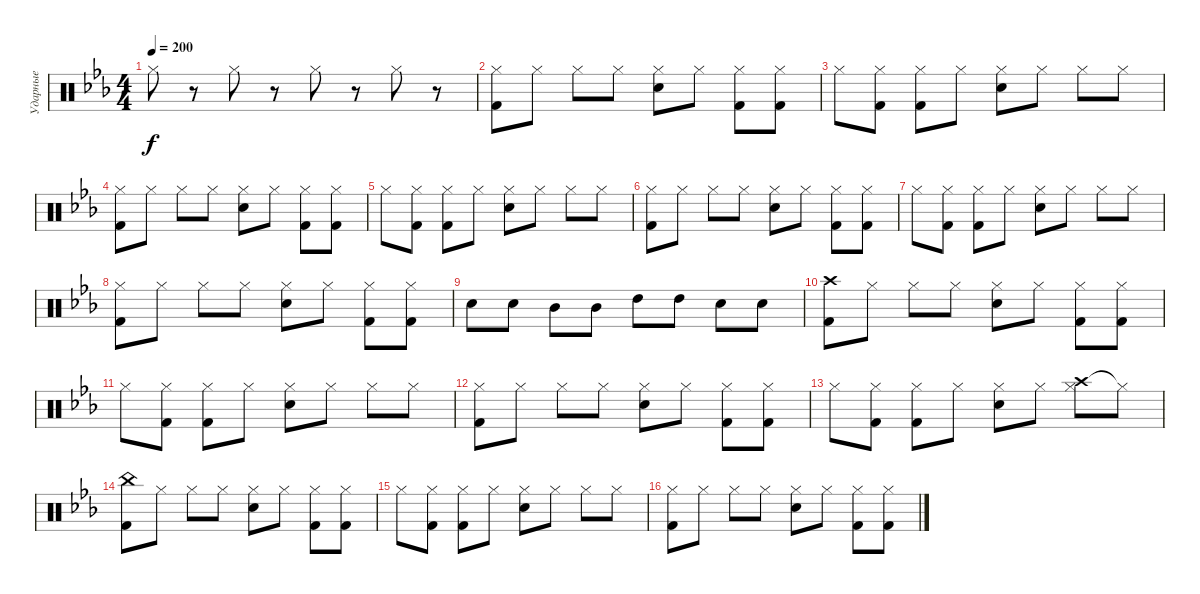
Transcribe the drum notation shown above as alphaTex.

\track ("Ударные" "Ударные") {instrument percussion}
\staff {score}
\articulation defaults
\ts (4 4)
\tempo 200
\clef neutral
\ks cminor "Hi-Hat (closed)".8{dy f}
r.8 "Hi-Hat (closed)".8 r.8 "Hi-Hat (closed)".8 r.8 "Hi-Hat (closed)".8 r.8 |
("Hi-Hat (closed)" "Kick (hit) 2").8 "Hi-Hat (closed)".8 "Hi-Hat (closed)".8 "Hi-Hat (closed)".8 ("Hi-Hat (closed)" "Electric Snare (hit)").8 "Hi-Hat (closed)".8 ("Hi-Hat (closed)" "Kick (hit) 2").8 ("Hi-Hat (closed)" "Kick (hit) 2").8 |
"Hi-Hat (closed)".8 ("Hi-Hat (closed)" "Kick (hit) 2").8 ("Hi-Hat (closed)" "Kick (hit) 2").8 "Hi-Hat (closed)".8 ("Hi-Hat (closed)" "Electric Snare (hit)").8 "Hi-Hat (closed)".8 "Hi-Hat (closed)".8 "Hi-Hat (closed)".8 |
("Hi-Hat (closed)" "Kick (hit) 2").8 "Hi-Hat (closed)".8 "Hi-Hat (closed)".8 "Hi-Hat (closed)".8 ("Hi-Hat (closed)" "Electric Snare (hit)").8 "Hi-Hat (closed)".8 ("Hi-Hat (closed)" "Kick (hit) 2").8 ("Hi-Hat (closed)" "Kick (hit) 2").8 |
"Hi-Hat (closed)".8 ("Hi-Hat (closed)" "Kick (hit) 2").8 ("Hi-Hat (closed)" "Kick (hit) 2").8 "Hi-Hat (closed)".8 ("Hi-Hat (closed)" "Electric Snare (hit)").8 "Hi-Hat (closed)".8 "Hi-Hat (closed)".8 "Hi-Hat (closed)".8 |
("Hi-Hat (closed)" "Kick (hit) 2").8 "Hi-Hat (closed)".8 "Hi-Hat (closed)".8 "Hi-Hat (closed)".8 ("Hi-Hat (closed)" "Electric Snare (hit)").8 "Hi-Hat (closed)".8 ("Hi-Hat (closed)" "Kick (hit) 2").8 ("Hi-Hat (closed)" "Kick (hit) 2").8 |
"Hi-Hat (closed)".8 ("Hi-Hat (closed)" "Kick (hit) 2").8 ("Hi-Hat (closed)" "Kick (hit) 2").8 "Hi-Hat (closed)".8 ("Hi-Hat (closed)" "Electric Snare (hit)").8 "Hi-Hat (closed)".8 "Hi-Hat (closed)".8 "Hi-Hat (closed)".8 |
("Hi-Hat (closed)" "Kick (hit) 2").8 "Hi-Hat (closed)".8 "Hi-Hat (closed)".8 "Hi-Hat (closed)".8 ("Hi-Hat (closed)" "Electric Snare (hit)").8 "Hi-Hat (closed)".8 ("Hi-Hat (closed)" "Kick (hit) 2").8 ("Hi-Hat (closed)" "Kick (hit) 2").8 |
"Electric Snare (hit)".8 "Electric Snare (hit)".8 "Mid Tom (hit)".8 "Mid Tom (hit)".8 "High Tom (hit)".8 "High Tom (hit)".8 "Electric Snare (hit)".8 "Electric Snare (hit)".8 |
("Crash high (hit)" "Kick (hit) 2").8 "Hi-Hat (closed)".8 "Hi-Hat (closed)".8 "Hi-Hat (closed)".8 ("Hi-Hat (closed)" "Electric Snare (hit)").8 "Hi-Hat (closed)".8 ("Hi-Hat (closed)" "Kick (hit) 2").8 ("Hi-Hat (closed)" "Kick (hit) 2").8 |
"Hi-Hat (closed)".8 ("Hi-Hat (closed)" "Kick (hit) 2").8 ("Hi-Hat (closed)" "Kick (hit) 2").8 "Hi-Hat (closed)".8 ("Hi-Hat (closed)" "Electric Snare (hit)").8 "Hi-Hat (closed)".8 "Hi-Hat (closed)".8 "Hi-Hat (closed)".8 |
("Hi-Hat (closed)" "Kick (hit) 2").8 "Hi-Hat (closed)".8 "Hi-Hat (closed)".8 "Hi-Hat (closed)".8 ("Hi-Hat (closed)" "Electric Snare (hit)").8 "Hi-Hat (closed)".8 ("Hi-Hat (closed)" "Kick (hit) 2").8 ("Hi-Hat (closed)" "Kick (hit) 2").8 |
"Hi-Hat (closed)".8 ("Hi-Hat (closed)" "Kick (hit) 2").8 ("Hi-Hat (closed)" "Kick (hit) 2").8 "Hi-Hat (closed)".8 ("Hi-Hat (closed)" "Electric Snare (hit)").8 "Hi-Hat (closed)".8 ("Crash high (hit)" "Hi-Hat (closed)").8 "Hi-Hat (closed)"{t}.8 |
("China (hit)" "Kick (hit) 2").8 "Hi-Hat (closed)".8 "Hi-Hat (closed)".8 "Hi-Hat (closed)".8 ("Hi-Hat (closed)" "Electric Snare (hit)").8 "Hi-Hat (closed)".8 ("Hi-Hat (closed)" "Kick (hit) 2").8 ("Hi-Hat (closed)" "Kick (hit) 2").8 |
"Hi-Hat (closed)".8 ("Hi-Hat (closed)" "Kick (hit) 2").8 ("Hi-Hat (closed)" "Kick (hit) 2").8 "Hi-Hat (closed)".8 ("Hi-Hat (closed)" "Electric Snare (hit)").8 "Hi-Hat (closed)".8 "Hi-Hat (closed)".8 "Hi-Hat (closed)".8 |
("Hi-Hat (closed)" "Kick (hit) 2").8 "Hi-Hat (closed)".8 "Hi-Hat (closed)".8 "Hi-Hat (closed)".8 ("Hi-Hat (closed)" "Electric Snare (hit)").8 "Hi-Hat (closed)".8 ("Hi-Hat (closed)" "Kick (hit) 2").8 ("Hi-Hat (closed)" "Kick (hit) 2").8
